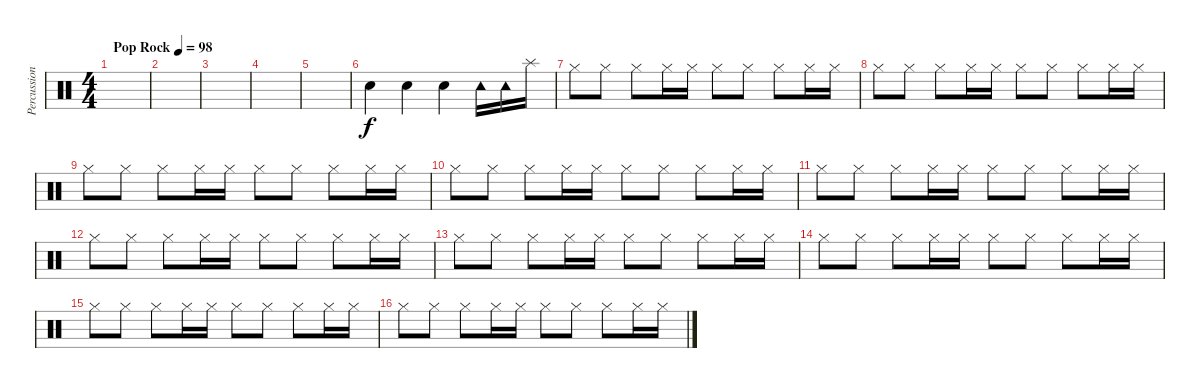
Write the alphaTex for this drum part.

\track ("Percussion" "Percussion") {instrument percussion}
\staff {score}
\articulation defaults
\ts (4 4)
\tempo (98 "Pop Rock")
\clef neutral
\ks c
|
|
|
|
|
"Snare (hit)".4 "Snare (hit)".4 "Snare (hit)".4 "Tambourine (hit)".16 "Tambourine (hit)".16 "Splash (hit)".16 |
"Hi-Hat (closed)".8 "Hi-Hat (closed)".8 "Hi-Hat (closed)".8 "Hi-Hat (closed)".16 "Hi-Hat (closed)".16 "Hi-Hat (closed)".8 "Hi-Hat (closed)".8 "Hi-Hat (closed)".8 "Hi-Hat (closed)".16 "Hi-Hat (closed)".16 |
"Hi-Hat (closed)".8 "Hi-Hat (closed)".8 "Hi-Hat (closed)".8 "Hi-Hat (closed)".16 "Hi-Hat (closed)".16 "Hi-Hat (closed)".8 "Hi-Hat (closed)".8 "Hi-Hat (closed)".8 "Hi-Hat (closed)".16 "Hi-Hat (closed)".16 |
"Hi-Hat (closed)".8 "Hi-Hat (closed)".8 "Hi-Hat (closed)".8 "Hi-Hat (closed)".16 "Hi-Hat (closed)".16 "Hi-Hat (closed)".8 "Hi-Hat (closed)".8 "Hi-Hat (closed)".8 "Hi-Hat (closed)".16 "Hi-Hat (closed)".16 |
"Hi-Hat (closed)".8 "Hi-Hat (closed)".8 "Hi-Hat (closed)".8 "Hi-Hat (closed)".16 "Hi-Hat (closed)".16 "Hi-Hat (closed)".8 "Hi-Hat (closed)".8 "Hi-Hat (closed)".8 "Hi-Hat (closed)".16 "Hi-Hat (closed)".16 |
"Hi-Hat (closed)".8 "Hi-Hat (closed)".8 "Hi-Hat (closed)".8 "Hi-Hat (closed)".16 "Hi-Hat (closed)".16 "Hi-Hat (closed)".8 "Hi-Hat (closed)".8 "Hi-Hat (closed)".8 "Hi-Hat (closed)".16 "Hi-Hat (closed)".16 |
"Hi-Hat (closed)".8 "Hi-Hat (closed)".8 "Hi-Hat (closed)".8 "Hi-Hat (closed)".16 "Hi-Hat (closed)".16 "Hi-Hat (closed)".8 "Hi-Hat (closed)".8 "Hi-Hat (closed)".8 "Hi-Hat (closed)".16 "Hi-Hat (closed)".16 |
"Hi-Hat (closed)".8 "Hi-Hat (closed)".8 "Hi-Hat (closed)".8 "Hi-Hat (closed)".16 "Hi-Hat (closed)".16 "Hi-Hat (closed)".8 "Hi-Hat (closed)".8 "Hi-Hat (closed)".8 "Hi-Hat (closed)".16 "Hi-Hat (closed)".16 |
"Hi-Hat (closed)".8 "Hi-Hat (closed)".8 "Hi-Hat (closed)".8 "Hi-Hat (closed)".16 "Hi-Hat (closed)".16 "Hi-Hat (closed)".8 "Hi-Hat (closed)".8 "Hi-Hat (closed)".8 "Hi-Hat (closed)".16 "Hi-Hat (closed)".16 |
"Hi-Hat (closed)".8 "Hi-Hat (closed)".8 "Hi-Hat (closed)".8 "Hi-Hat (closed)".16 "Hi-Hat (closed)".16 "Hi-Hat (closed)".8 "Hi-Hat (closed)".8 "Hi-Hat (closed)".8 "Hi-Hat (closed)".16 "Hi-Hat (closed)".16 |
"Hi-Hat (closed)".8 "Hi-Hat (closed)".8 "Hi-Hat (closed)".8 "Hi-Hat (closed)".16 "Hi-Hat (closed)".16 "Hi-Hat (closed)".8 "Hi-Hat (closed)".8 "Hi-Hat (closed)".8 "Hi-Hat (closed)".16 "Hi-Hat (closed)".16
